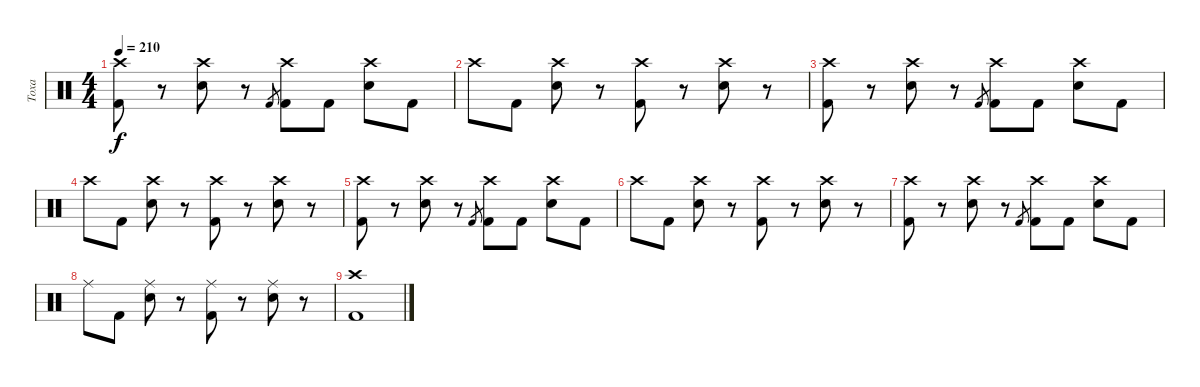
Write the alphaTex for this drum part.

\track ("Toxa" "Toxa") {instrument percussion}
\staff {score}
\articulation defaults
\ts (4 4)
\tempo 210
\clef neutral
\ks c
("Kick (hit) 2" "Crash high (hit)").8{dy f} r.8 ("Snare (hit) 2" "Crash high (hit)").8 r.8 "Kick (hit) 2".8{gr} ("Kick (hit) 2" "Crash high (hit)").8 "Kick (hit) 2".8 ("Snare (hit) 2" "Crash high (hit)").8 "Kick (hit) 2".8 |
"Crash high (hit)".8 "Kick (hit) 2".8 ("Snare (hit) 2" "Crash high (hit)").8 r.8 ("Kick (hit) 2" "Crash high (hit)").8 r.8 ("Snare (hit) 2" "Crash high (hit)").8 r.8 |
("Kick (hit) 2" "Crash high (hit)").8 r.8 ("Snare (hit) 2" "Crash high (hit)").8 r.8 "Kick (hit) 2".8{gr} ("Kick (hit) 2" "Crash high (hit)").8 "Kick (hit) 2".8 ("Snare (hit) 2" "Crash high (hit)").8 "Kick (hit) 2".8 |
"Crash high (hit)".8 "Kick (hit) 2".8 ("Snare (hit) 2" "Crash high (hit)").8 r.8 ("Kick (hit) 2" "Crash high (hit)").8 r.8 ("Snare (hit) 2" "Crash high (hit)").8 r.8 |
("Kick (hit) 2" "Crash high (hit)").8 r.8 ("Snare (hit) 2" "Crash high (hit)").8 r.8 "Kick (hit) 2".8{gr} ("Kick (hit) 2" "Crash high (hit)").8 "Kick (hit) 2".8 ("Snare (hit) 2" "Crash high (hit)").8 "Kick (hit) 2".8 |
"Crash high (hit)".8 "Kick (hit) 2".8 ("Snare (hit) 2" "Crash high (hit)").8 r.8 ("Kick (hit) 2" "Crash high (hit)").8 r.8 ("Snare (hit) 2" "Crash high (hit)").8 r.8 |
("Kick (hit) 2" "Crash high (hit)").8 r.8 ("Snare (hit) 2" "Crash high (hit)").8 r.8 "Kick (hit) 2".8{gr} ("Kick (hit) 2" "Crash high (hit)").8 "Kick (hit) 2".8 ("Snare (hit) 2" "Crash high (hit)").8 "Kick (hit) 2".8 |
"Ride (middle)".8 "Kick (hit) 2".8 ("Snare (hit) 2" "Ride (middle)").8 r.8 ("Kick (hit) 2" "Ride (middle)").8 r.8 ("Snare (hit) 2" "Ride (middle)").8 r.8 |
("Crash high (hit)" "Kick (hit) 2").1
